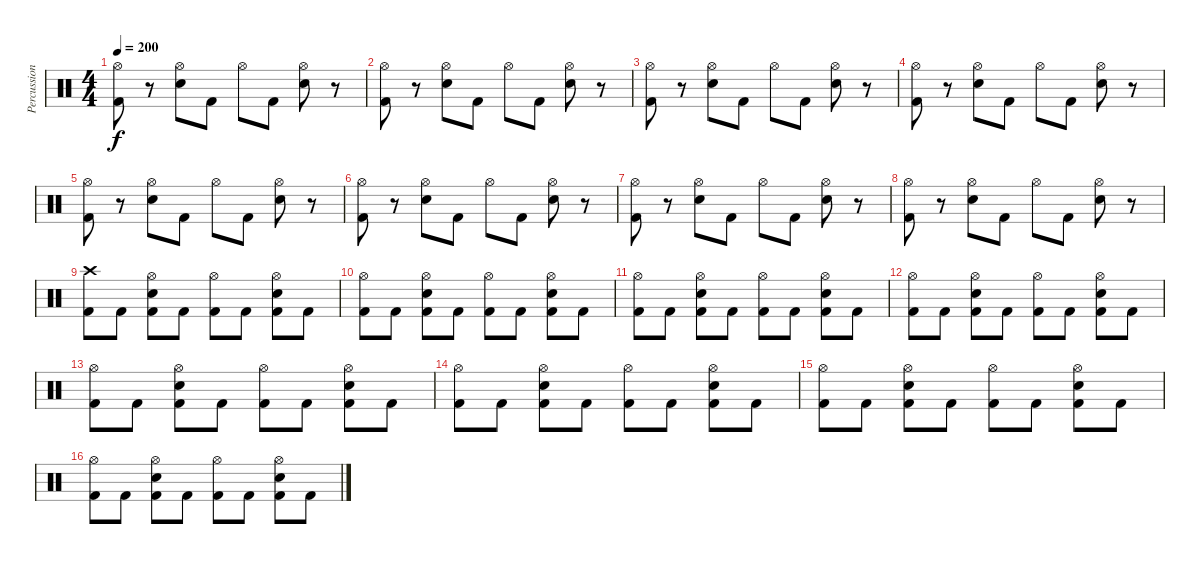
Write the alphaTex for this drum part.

\track ("Percussion" "Percussion") {instrument percussion}
\staff {score}
\articulation defaults
\ts (4 4)
\tempo 200
\clef neutral
\ks c
("Hi-Hat (open)" "Kick (hit) 2").8{dy f} r.8 ("Hi-Hat (open)" "Electric Snare (hit)").8 "Kick (hit) 2".8 "Hi-Hat (open)".8 "Kick (hit) 2".8 ("Hi-Hat (open)" "Electric Snare (hit)").8 r.8 |
("Hi-Hat (open)" "Kick (hit) 2").8 r.8 ("Hi-Hat (open)" "Electric Snare (hit)").8 "Kick (hit) 2".8 "Hi-Hat (open)".8 "Kick (hit) 2".8 ("Hi-Hat (open)" "Electric Snare (hit)").8 r.8 |
("Hi-Hat (open)" "Kick (hit) 2").8 r.8 ("Hi-Hat (open)" "Electric Snare (hit)").8 "Kick (hit) 2".8 "Hi-Hat (open)".8 "Kick (hit) 2".8 ("Hi-Hat (open)" "Electric Snare (hit)").8 r.8 |
("Hi-Hat (open)" "Kick (hit) 2").8 r.8 ("Hi-Hat (open)" "Electric Snare (hit)").8 "Kick (hit) 2".8 "Hi-Hat (open)".8 "Kick (hit) 2".8 ("Hi-Hat (open)" "Electric Snare (hit)").8 r.8 |
("Hi-Hat (open)" "Kick (hit) 2").8 r.8 ("Hi-Hat (open)" "Electric Snare (hit)").8 "Kick (hit) 2".8 "Hi-Hat (open)".8 "Kick (hit) 2".8 ("Hi-Hat (open)" "Electric Snare (hit)").8 r.8 |
("Hi-Hat (open)" "Kick (hit) 2").8 r.8 ("Hi-Hat (open)" "Electric Snare (hit)").8 "Kick (hit) 2".8 "Hi-Hat (open)".8 "Kick (hit) 2".8 ("Hi-Hat (open)" "Electric Snare (hit)").8 r.8 |
("Hi-Hat (open)" "Kick (hit) 2").8 r.8 ("Hi-Hat (open)" "Electric Snare (hit)").8 "Kick (hit) 2".8 "Hi-Hat (open)".8 "Kick (hit) 2".8 ("Hi-Hat (open)" "Electric Snare (hit)").8 r.8 |
("Hi-Hat (open)" "Kick (hit) 2").8 r.8 ("Hi-Hat (open)" "Electric Snare (hit)").8 "Kick (hit) 2".8 "Hi-Hat (open)".8 "Kick (hit) 2".8 ("Hi-Hat (open)" "Electric Snare (hit)").8 r.8 |
("Crash high (hit)" "Kick (hit) 2").8 "Kick (hit) 2".8 ("Hi-Hat (open)" "Electric Snare (hit)" "Kick (hit) 2").8 "Kick (hit) 2".8 ("Hi-Hat (open)" "Kick (hit) 2").8 "Kick (hit) 2".8 ("Hi-Hat (open)" "Electric Snare (hit)" "Kick (hit) 2").8 "Kick (hit) 2".8 |
("Hi-Hat (open)" "Kick (hit) 2").8 "Kick (hit) 2".8 ("Hi-Hat (open)" "Electric Snare (hit)" "Kick (hit) 2").8 "Kick (hit) 2".8 ("Hi-Hat (open)" "Kick (hit) 2").8 "Kick (hit) 2".8 ("Hi-Hat (open)" "Electric Snare (hit)" "Kick (hit) 2").8 "Kick (hit) 2".8 |
("Hi-Hat (open)" "Kick (hit) 2").8 "Kick (hit) 2".8 ("Hi-Hat (open)" "Electric Snare (hit)" "Kick (hit) 2").8 "Kick (hit) 2".8 ("Hi-Hat (open)" "Kick (hit) 2").8 "Kick (hit) 2".8 ("Hi-Hat (open)" "Electric Snare (hit)" "Kick (hit) 2").8 "Kick (hit) 2".8 |
("Hi-Hat (open)" "Kick (hit) 2").8 "Kick (hit) 2".8 ("Hi-Hat (open)" "Electric Snare (hit)" "Kick (hit) 2").8 "Kick (hit) 2".8 ("Hi-Hat (open)" "Kick (hit) 2").8 "Kick (hit) 2".8 ("Hi-Hat (open)" "Electric Snare (hit)" "Kick (hit) 2").8 "Kick (hit) 2".8 |
("Hi-Hat (open)" "Kick (hit) 2").8 "Kick (hit) 2".8 ("Hi-Hat (open)" "Electric Snare (hit)" "Kick (hit) 2").8 "Kick (hit) 2".8 ("Hi-Hat (open)" "Kick (hit) 2").8 "Kick (hit) 2".8 ("Hi-Hat (open)" "Electric Snare (hit)" "Kick (hit) 2").8 "Kick (hit) 2".8 |
("Hi-Hat (open)" "Kick (hit) 2").8 "Kick (hit) 2".8 ("Hi-Hat (open)" "Electric Snare (hit)" "Kick (hit) 2").8 "Kick (hit) 2".8 ("Hi-Hat (open)" "Kick (hit) 2").8 "Kick (hit) 2".8 ("Hi-Hat (open)" "Electric Snare (hit)" "Kick (hit) 2").8 "Kick (hit) 2".8 |
("Hi-Hat (open)" "Kick (hit) 2").8 "Kick (hit) 2".8 ("Hi-Hat (open)" "Electric Snare (hit)" "Kick (hit) 2").8 "Kick (hit) 2".8 ("Hi-Hat (open)" "Kick (hit) 2").8 "Kick (hit) 2".8 ("Hi-Hat (open)" "Electric Snare (hit)" "Kick (hit) 2").8 "Kick (hit) 2".8 |
("Hi-Hat (open)" "Kick (hit) 2").8 "Kick (hit) 2".8 ("Hi-Hat (open)" "Electric Snare (hit)" "Kick (hit) 2").8 "Kick (hit) 2".8 ("Hi-Hat (open)" "Kick (hit) 2").8 "Kick (hit) 2".8 ("Hi-Hat (open)" "Electric Snare (hit)" "Kick (hit) 2").8 "Kick (hit) 2".8
